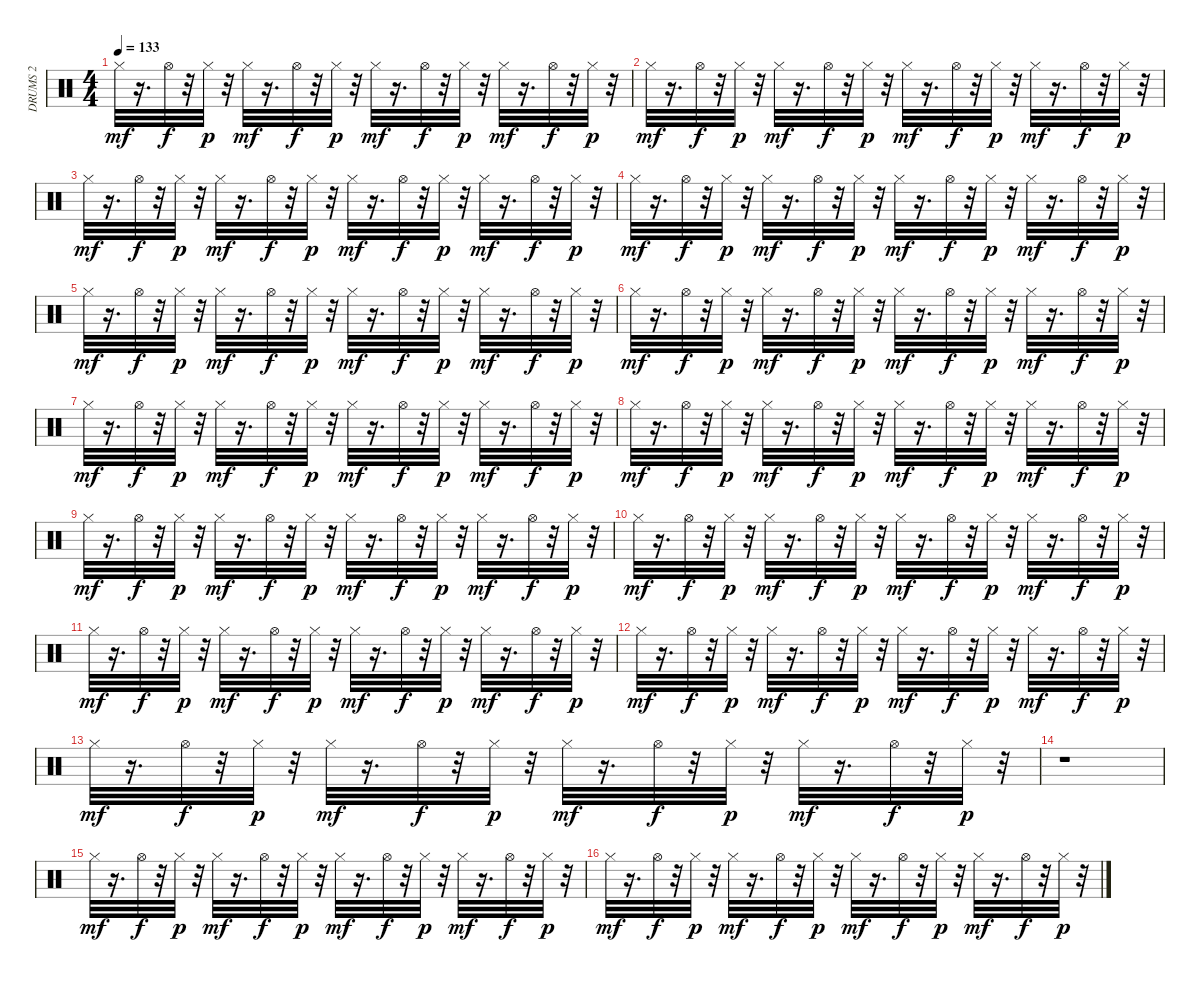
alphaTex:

\track ("DRUMS 2                             " "DRUMS 2   ") {instrument percussion}
\staff {score}
\articulation defaults
\ts (4 4)
\tempo 133
\clef neutral
\ks c "Hi-Hat (closed)".32{dy mf}
r.16{d} "Hi-Hat (open)".32{dy f} r.32 "Hi-Hat (closed)".32{dy p} r.32 "Hi-Hat (closed)".32{dy mf} r.16{d} "Hi-Hat (open)".32{dy f} r.32 "Hi-Hat (closed)".32{dy p} r.32 "Hi-Hat (closed)".32{dy mf} r.16{d} "Hi-Hat (open)".32{dy f} r.32 "Hi-Hat (closed)".32{dy p} r.32 "Hi-Hat (closed)".32{dy mf} r.16{d} "Hi-Hat (open)".32{dy f} r.32 "Hi-Hat (closed)".32{dy p} r.32 |
"Hi-Hat (closed)".32{dy mf} r.16{d} "Hi-Hat (open)".32{dy f} r.32 "Hi-Hat (closed)".32{dy p} r.32 "Hi-Hat (closed)".32{dy mf} r.16{d} "Hi-Hat (open)".32{dy f} r.32 "Hi-Hat (closed)".32{dy p} r.32 "Hi-Hat (closed)".32{dy mf} r.16{d} "Hi-Hat (open)".32{dy f} r.32 "Hi-Hat (closed)".32{dy p} r.32 "Hi-Hat (closed)".32{dy mf} r.16{d} "Hi-Hat (open)".32{dy f} r.32 "Hi-Hat (closed)".32{dy p} r.32 |
"Hi-Hat (closed)".32{dy mf} r.16{d} "Hi-Hat (open)".32{dy f} r.32 "Hi-Hat (closed)".32{dy p} r.32 "Hi-Hat (closed)".32{dy mf} r.16{d} "Hi-Hat (open)".32{dy f} r.32 "Hi-Hat (closed)".32{dy p} r.32 "Hi-Hat (closed)".32{dy mf} r.16{d} "Hi-Hat (open)".32{dy f} r.32 "Hi-Hat (closed)".32{dy p} r.32 "Hi-Hat (closed)".32{dy mf} r.16{d} "Hi-Hat (open)".32{dy f} r.32 "Hi-Hat (closed)".32{dy p} r.32 |
"Hi-Hat (closed)".32{dy mf} r.16{d} "Hi-Hat (open)".32{dy f} r.32 "Hi-Hat (closed)".32{dy p} r.32 "Hi-Hat (closed)".32{dy mf} r.16{d} "Hi-Hat (open)".32{dy f} r.32 "Hi-Hat (closed)".32{dy p} r.32 "Hi-Hat (closed)".32{dy mf} r.16{d} "Hi-Hat (open)".32{dy f} r.32 "Hi-Hat (closed)".32{dy p} r.32 "Hi-Hat (closed)".32{dy mf} r.16{d} "Hi-Hat (open)".32{dy f} r.32 "Hi-Hat (closed)".32{dy p} r.32 |
"Hi-Hat (closed)".32{dy mf} r.16{d} "Hi-Hat (open)".32{dy f} r.32 "Hi-Hat (closed)".32{dy p} r.32 "Hi-Hat (closed)".32{dy mf} r.16{d} "Hi-Hat (open)".32{dy f} r.32 "Hi-Hat (closed)".32{dy p} r.32 "Hi-Hat (closed)".32{dy mf} r.16{d} "Hi-Hat (open)".32{dy f} r.32 "Hi-Hat (closed)".32{dy p} r.32 "Hi-Hat (closed)".32{dy mf} r.16{d} "Hi-Hat (open)".32{dy f} r.32 "Hi-Hat (closed)".32{dy p} r.32 |
"Hi-Hat (closed)".32{dy mf} r.16{d} "Hi-Hat (open)".32{dy f} r.32 "Hi-Hat (closed)".32{dy p} r.32 "Hi-Hat (closed)".32{dy mf} r.16{d} "Hi-Hat (open)".32{dy f} r.32 "Hi-Hat (closed)".32{dy p} r.32 "Hi-Hat (closed)".32{dy mf} r.16{d} "Hi-Hat (open)".32{dy f} r.32 "Hi-Hat (closed)".32{dy p} r.32 "Hi-Hat (closed)".32{dy mf} r.16{d} "Hi-Hat (open)".32{dy f} r.32 "Hi-Hat (closed)".32{dy p} r.32 |
"Hi-Hat (closed)".32{dy mf} r.16{d} "Hi-Hat (open)".32{dy f} r.32 "Hi-Hat (closed)".32{dy p} r.32 "Hi-Hat (closed)".32{dy mf} r.16{d} "Hi-Hat (open)".32{dy f} r.32 "Hi-Hat (closed)".32{dy p} r.32 "Hi-Hat (closed)".32{dy mf} r.16{d} "Hi-Hat (open)".32{dy f} r.32 "Hi-Hat (closed)".32{dy p} r.32 "Hi-Hat (closed)".32{dy mf} r.16{d} "Hi-Hat (open)".32{dy f} r.32 "Hi-Hat (closed)".32{dy p} r.32 |
"Hi-Hat (closed)".32{dy mf} r.16{d} "Hi-Hat (open)".32{dy f} r.32 "Hi-Hat (closed)".32{dy p} r.32 "Hi-Hat (closed)".32{dy mf} r.16{d} "Hi-Hat (open)".32{dy f} r.32 "Hi-Hat (closed)".32{dy p} r.32 "Hi-Hat (closed)".32{dy mf} r.16{d} "Hi-Hat (open)".32{dy f} r.32 "Hi-Hat (closed)".32{dy p} r.32 "Hi-Hat (closed)".32{dy mf} r.16{d} "Hi-Hat (open)".32{dy f} r.32 "Hi-Hat (closed)".32{dy p} r.32 |
"Hi-Hat (closed)".32{dy mf} r.16{d} "Hi-Hat (open)".32{dy f} r.32 "Hi-Hat (closed)".32{dy p} r.32 "Hi-Hat (closed)".32{dy mf} r.16{d} "Hi-Hat (open)".32{dy f} r.32 "Hi-Hat (closed)".32{dy p} r.32 "Hi-Hat (closed)".32{dy mf} r.16{d} "Hi-Hat (open)".32{dy f} r.32 "Hi-Hat (closed)".32{dy p} r.32 "Hi-Hat (closed)".32{dy mf} r.16{d} "Hi-Hat (open)".32{dy f} r.32 "Hi-Hat (closed)".32{dy p} r.32 |
"Hi-Hat (closed)".32{dy mf} r.16{d} "Hi-Hat (open)".32{dy f} r.32 "Hi-Hat (closed)".32{dy p} r.32 "Hi-Hat (closed)".32{dy mf} r.16{d} "Hi-Hat (open)".32{dy f} r.32 "Hi-Hat (closed)".32{dy p} r.32 "Hi-Hat (closed)".32{dy mf} r.16{d} "Hi-Hat (open)".32{dy f} r.32 "Hi-Hat (closed)".32{dy p} r.32 "Hi-Hat (closed)".32{dy mf} r.16{d} "Hi-Hat (open)".32{dy f} r.32 "Hi-Hat (closed)".32{dy p} r.32 |
"Hi-Hat (closed)".32{dy mf} r.16{d} "Hi-Hat (open)".32{dy f} r.32 "Hi-Hat (closed)".32{dy p} r.32 "Hi-Hat (closed)".32{dy mf} r.16{d} "Hi-Hat (open)".32{dy f} r.32 "Hi-Hat (closed)".32{dy p} r.32 "Hi-Hat (closed)".32{dy mf} r.16{d} "Hi-Hat (open)".32{dy f} r.32 "Hi-Hat (closed)".32{dy p} r.32 "Hi-Hat (closed)".32{dy mf} r.16{d} "Hi-Hat (open)".32{dy f} r.32 "Hi-Hat (closed)".32{dy p} r.32 |
"Hi-Hat (closed)".32{dy mf} r.16{d} "Hi-Hat (open)".32{dy f} r.32 "Hi-Hat (closed)".32{dy p} r.32 "Hi-Hat (closed)".32{dy mf} r.16{d} "Hi-Hat (open)".32{dy f} r.32 "Hi-Hat (closed)".32{dy p} r.32 "Hi-Hat (closed)".32{dy mf} r.16{d} "Hi-Hat (open)".32{dy f} r.32 "Hi-Hat (closed)".32{dy p} r.32 "Hi-Hat (closed)".32{dy mf} r.16{d} "Hi-Hat (open)".32{dy f} r.32 "Hi-Hat (closed)".32{dy p} r.32 |
"Hi-Hat (closed)".32{dy mf} r.16{d} "Hi-Hat (open)".32{dy f} r.32 "Hi-Hat (closed)".32{dy p} r.32 "Hi-Hat (closed)".32{dy mf} r.16{d} "Hi-Hat (open)".32{dy f} r.32 "Hi-Hat (closed)".32{dy p} r.32 "Hi-Hat (closed)".32{dy mf} r.16{d} "Hi-Hat (open)".32{dy f} r.32 "Hi-Hat (closed)".32{dy p} r.32 "Hi-Hat (closed)".32{dy mf} r.16{d} "Hi-Hat (open)".32{dy f} r.32 "Hi-Hat (closed)".32{dy p} r.32 |
r.1 |
"Hi-Hat (closed)".32{dy mf} r.16{d} "Hi-Hat (open)".32{dy f} r.32 "Hi-Hat (closed)".32{dy p} r.32 "Hi-Hat (closed)".32{dy mf} r.16{d} "Hi-Hat (open)".32{dy f} r.32 "Hi-Hat (closed)".32{dy p} r.32 "Hi-Hat (closed)".32{dy mf} r.16{d} "Hi-Hat (open)".32{dy f} r.32 "Hi-Hat (closed)".32{dy p} r.32 "Hi-Hat (closed)".32{dy mf} r.16{d} "Hi-Hat (open)".32{dy f} r.32 "Hi-Hat (closed)".32{dy p} r.32 |
"Hi-Hat (closed)".32{dy mf} r.16{d} "Hi-Hat (open)".32{dy f} r.32 "Hi-Hat (closed)".32{dy p} r.32 "Hi-Hat (closed)".32{dy mf} r.16{d} "Hi-Hat (open)".32{dy f} r.32 "Hi-Hat (closed)".32{dy p} r.32 "Hi-Hat (closed)".32{dy mf} r.16{d} "Hi-Hat (open)".32{dy f} r.32 "Hi-Hat (closed)".32{dy p} r.32 "Hi-Hat (closed)".32{dy mf} r.16{d} "Hi-Hat (open)".32{dy f} r.32 "Hi-Hat (closed)".32{dy p} r.32
